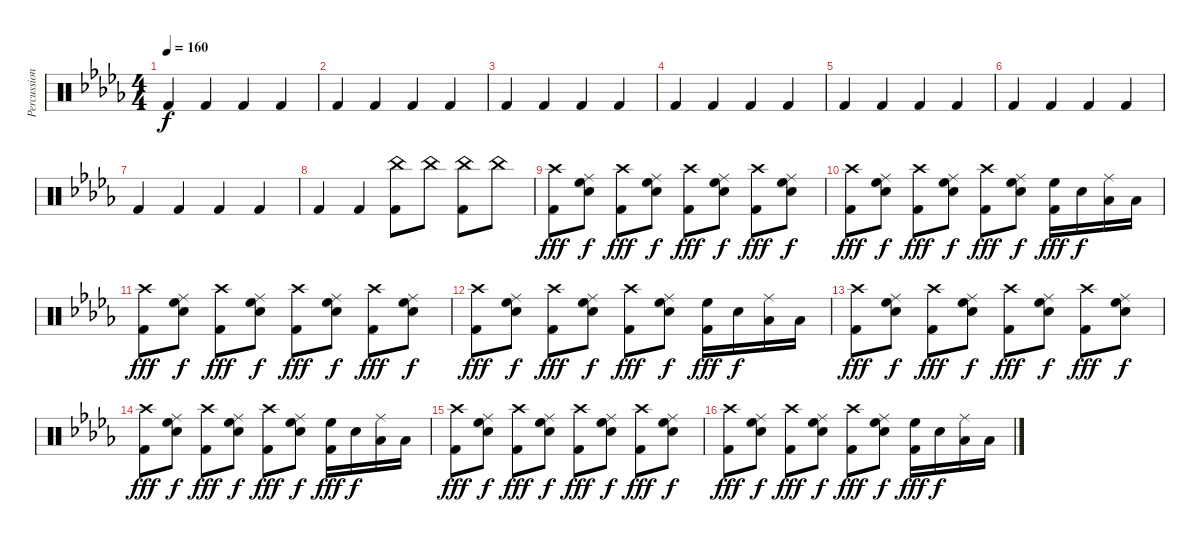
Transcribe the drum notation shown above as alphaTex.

\track ("Percussions" "Percussion") {instrument percussion}
\staff {score}
\articulation defaults
\ts (4 4)
\tempo 160
\clef neutral
\ks db "Kick (hit) 2".4{dy f} "Kick (hit) 2".4 "Kick (hit) 2".4 "Kick (hit) 2".4
|
"Kick (hit) 2".4 "Kick (hit) 2".4 "Kick (hit) 2".4 "Kick (hit) 2".4 |
"Kick (hit) 2".4 "Kick (hit) 2".4 "Kick (hit) 2".4 "Kick (hit) 2".4 |
"Kick (hit) 2".4 "Kick (hit) 2".4 "Kick (hit) 2".4 "Kick (hit) 2".4 |
"Kick (hit) 2".4 "Kick (hit) 2".4 "Kick (hit) 2".4 "Kick (hit) 2".4 |
"Kick (hit) 2".4 "Kick (hit) 2".4 "Kick (hit) 2".4 "Kick (hit) 2".4 |
"Kick (hit) 2".4 "Kick (hit) 2".4 "Kick (hit) 2".4 "Kick (hit) 2".4 |
"Kick (hit) 2".4 "Kick (hit) 2".4 ("Kick (hit) 2" "China (hit)").8 "China (hit)".8 ("Kick (hit) 2" "China (hit)").8 "China (hit)".8 |
("Crash high (hit)" "Kick (hit) 2").8{dy fff} ("High Floor Tom (hit)" "Ride (middle)" "Snare (hit) 2").8{dy f} ("Crash high (hit)" "Kick (hit) 2").8{dy fff} ("High Floor Tom (hit)" "Ride (middle)" "Snare (hit) 2").8{dy f} ("Crash high (hit)" "Kick (hit) 2").8{dy fff} ("High Floor Tom (hit)" "Ride (middle)" "Snare (hit) 2").8{dy f} ("Crash high (hit)" "Kick (hit) 2").8{dy fff} ("High Floor Tom (hit)" "Ride (middle)" "Snare (hit) 2").8{dy f} |
("Crash high (hit)" "Kick (hit) 2").8{dy fff} ("High Floor Tom (hit)" "Ride (middle)" "Snare (hit) 2").8{dy f} ("Crash high (hit)" "Kick (hit) 2").8{dy fff} ("High Floor Tom (hit)" "Ride (middle)" "Snare (hit) 2").8{dy f} ("Crash high (hit)" "Kick (hit) 2").8{dy fff} ("High Floor Tom (hit)" "Ride (middle)" "Snare (hit) 2").8{dy f} ("High Floor Tom (hit)" "Kick (hit) 2").16{dy fff} "Snare (hit) 2".16{dy f} ("Low Tom (hit)" "Ride (middle)").16 "Low Floor Tom (hit)".16 |
("Crash high (hit)" "Kick (hit) 2").8{dy fff} ("High Floor Tom (hit)" "Ride (middle)" "Snare (hit) 2").8{dy f} ("Crash high (hit)" "Kick (hit) 2").8{dy fff} ("High Floor Tom (hit)" "Ride (middle)" "Snare (hit) 2").8{dy f} ("Crash high (hit)" "Kick (hit) 2").8{dy fff} ("High Floor Tom (hit)" "Ride (middle)" "Snare (hit) 2").8{dy f} ("Crash high (hit)" "Kick (hit) 2").8{dy fff} ("High Floor Tom (hit)" "Ride (middle)" "Snare (hit) 2").8{dy f} |
("Crash high (hit)" "Kick (hit) 2").8{dy fff} ("High Floor Tom (hit)" "Ride (middle)" "Snare (hit) 2").8{dy f} ("Crash high (hit)" "Kick (hit) 2").8{dy fff} ("High Floor Tom (hit)" "Ride (middle)" "Snare (hit) 2").8{dy f} ("Crash high (hit)" "Kick (hit) 2").8{dy fff} ("High Floor Tom (hit)" "Ride (middle)" "Snare (hit) 2").8{dy f} ("High Floor Tom (hit)" "Kick (hit) 2").16{dy fff} "Snare (hit) 2".16{dy f} ("Low Tom (hit)" "Ride (middle)").16 "Low Floor Tom (hit)".16 |
("Crash high (hit)" "Kick (hit) 2").8{dy fff} ("High Floor Tom (hit)" "Ride (middle)" "Snare (hit) 2").8{dy f} ("Crash high (hit)" "Kick (hit) 2").8{dy fff} ("High Floor Tom (hit)" "Ride (middle)" "Snare (hit) 2").8{dy f} ("Crash high (hit)" "Kick (hit) 2").8{dy fff} ("High Floor Tom (hit)" "Ride (middle)" "Snare (hit) 2").8{dy f} ("Crash high (hit)" "Kick (hit) 2").8{dy fff} ("High Floor Tom (hit)" "Ride (middle)" "Snare (hit) 2").8{dy f} |
("Crash high (hit)" "Kick (hit) 2").8{dy fff} ("High Floor Tom (hit)" "Ride (middle)" "Snare (hit) 2").8{dy f} ("Crash high (hit)" "Kick (hit) 2").8{dy fff} ("High Floor Tom (hit)" "Ride (middle)" "Snare (hit) 2").8{dy f} ("Crash high (hit)" "Kick (hit) 2").8{dy fff} ("High Floor Tom (hit)" "Ride (middle)" "Snare (hit) 2").8{dy f} ("High Floor Tom (hit)" "Kick (hit) 2").16{dy fff} "Snare (hit) 2".16{dy f} ("Low Tom (hit)" "Ride (middle)").16 "Low Floor Tom (hit)".16 |
("Crash high (hit)" "Kick (hit) 2").8{dy fff} ("High Floor Tom (hit)" "Ride (middle)" "Snare (hit) 2").8{dy f} ("Crash high (hit)" "Kick (hit) 2").8{dy fff} ("High Floor Tom (hit)" "Ride (middle)" "Snare (hit) 2").8{dy f} ("Crash high (hit)" "Kick (hit) 2").8{dy fff} ("High Floor Tom (hit)" "Ride (middle)" "Snare (hit) 2").8{dy f} ("Crash high (hit)" "Kick (hit) 2").8{dy fff} ("High Floor Tom (hit)" "Ride (middle)" "Snare (hit) 2").8{dy f} |
("Crash high (hit)" "Kick (hit) 2").8{dy fff} ("High Floor Tom (hit)" "Ride (middle)" "Snare (hit) 2").8{dy f} ("Crash high (hit)" "Kick (hit) 2").8{dy fff} ("High Floor Tom (hit)" "Ride (middle)" "Snare (hit) 2").8{dy f} ("Crash high (hit)" "Kick (hit) 2").8{dy fff} ("High Floor Tom (hit)" "Ride (middle)" "Snare (hit) 2").8{dy f} ("High Floor Tom (hit)" "Kick (hit) 2").16{dy fff} "Snare (hit) 2".16{dy f} ("Low Tom (hit)" "Ride (middle)").16 "Low Floor Tom (hit)".16
